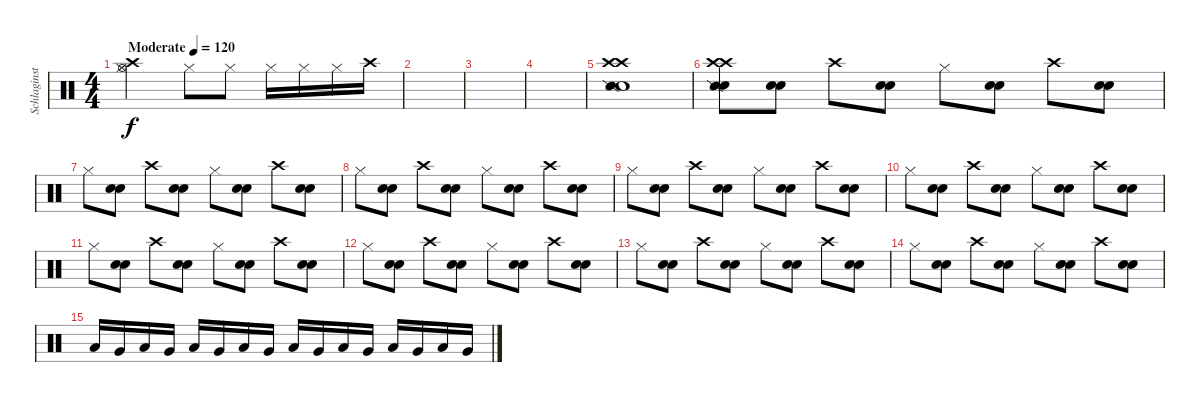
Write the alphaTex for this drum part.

\track ("Schlaginstrumente - Auswahl" "Schlaginst") {instrument percussion}
\staff {score}
\articulation defaults
\ts (4 4)
\tempo (120 "Moderate")
\clef neutral
\ks c
("Hi-Hat (closed)" "Hi-Hat (open)" "Crash high (hit)").2{dy f} "Hi-Hat (closed)".8 "Hi-Hat (closed)".8 "Hi-Hat (closed)".16 "Hi-Hat (closed)".16 "Hi-Hat (closed)".16 "Crash high (hit)".16 |
|
|
|
("Crash high (hit)" "Crash high (hit)" "Snare (hit) 2" "Snare (side stick) 2").1 |
("Crash high (hit)" "Crash high (hit)" "Snare (hit) 2" "Snare (side stick) 2").8 ("Snare (hit) 2" "Snare (hit) 2").8 "Crash high (hit)".8 ("Snare (hit) 2" "Snare (hit) 2").8 "Hi-Hat (closed)".8 ("Snare (hit) 2" "Snare (hit) 2").8 "Crash high (hit)".8 ("Snare (hit) 2" "Snare (hit) 2").8 |
"Hi-Hat (closed)".8 ("Snare (hit) 2" "Snare (hit) 2").8 "Crash high (hit)".8 ("Snare (hit) 2" "Snare (hit) 2").8 "Hi-Hat (closed)".8 ("Snare (hit) 2" "Snare (hit) 2").8 "Crash high (hit)".8 ("Snare (hit) 2" "Snare (hit) 2").8 |
"Hi-Hat (closed)".8 ("Snare (hit) 2" "Snare (hit) 2").8 "Crash high (hit)".8 ("Snare (hit) 2" "Snare (hit) 2").8 "Hi-Hat (closed)".8 ("Snare (hit) 2" "Snare (hit) 2").8 "Crash high (hit)".8 ("Snare (hit) 2" "Snare (hit) 2").8 |
"Hi-Hat (closed)".8 ("Snare (hit) 2" "Snare (hit) 2").8 "Crash high (hit)".8 ("Snare (hit) 2" "Snare (hit) 2").8 "Hi-Hat (closed)".8 ("Snare (hit) 2" "Snare (hit) 2").8 "Crash high (hit)".8 ("Snare (hit) 2" "Snare (hit) 2").8 |
"Hi-Hat (closed)".8 ("Snare (hit) 2" "Snare (hit) 2").8 "Crash high (hit)".8 ("Snare (hit) 2" "Snare (hit) 2").8 "Hi-Hat (closed)".8 ("Snare (hit) 2" "Snare (hit) 2").8 "Crash high (hit)".8 ("Snare (hit) 2" "Snare (hit) 2").8 |
"Hi-Hat (closed)".8 ("Snare (hit) 2" "Snare (hit) 2").8 "Crash high (hit)".8 ("Snare (hit) 2" "Snare (hit) 2").8 "Hi-Hat (closed)".8 ("Snare (hit) 2" "Snare (hit) 2").8 "Crash high (hit)".8 ("Snare (hit) 2" "Snare (hit) 2").8 |
"Hi-Hat (closed)".8 ("Snare (hit) 2" "Snare (hit) 2").8 "Crash high (hit)".8 ("Snare (hit) 2" "Snare (hit) 2").8 "Hi-Hat (closed)".8 ("Snare (hit) 2" "Snare (hit) 2").8 "Crash high (hit)".8 ("Snare (hit) 2" "Snare (hit) 2").8 |
"Hi-Hat (closed)".8 ("Snare (hit) 2" "Snare (hit) 2").8 "Crash high (hit)".8 ("Snare (hit) 2" "Snare (hit) 2").8 "Hi-Hat (closed)".8 ("Snare (hit) 2" "Snare (hit) 2").8 "Crash high (hit)".8 ("Snare (hit) 2" "Snare (hit) 2").8 |
"Hi-Hat (closed)".8 ("Snare (hit) 2" "Snare (hit) 2").8 "Crash high (hit)".8 ("Snare (hit) 2" "Snare (hit) 2").8 "Hi-Hat (closed)".8 ("Snare (hit) 2" "Snare (hit) 2").8 "Crash high (hit)".8 ("Snare (hit) 2" "Snare (hit) 2").8 |
"Low Tom (hit)".16 "Very Low Tom (hit)".16 "Low Tom (hit)".16 "Very Low Tom (hit)".16 "Low Tom (hit)".16 "Very Low Tom (hit)".16 "Low Tom (hit)".16 "Very Low Tom (hit)".16 "Low Tom (hit)".16 "Very Low Tom (hit)".16 "Low Tom (hit)".16 "Very Low Tom (hit)".16 "Low Tom (hit)".16 "Very Low Tom (hit)".16 "Low Tom (hit)".16 "Very Low Tom (hit)".16
